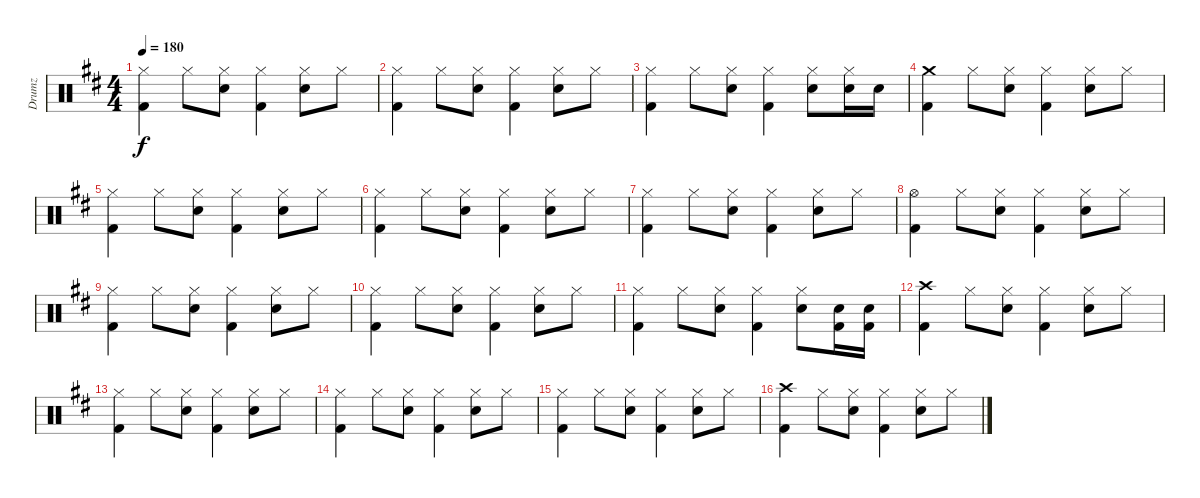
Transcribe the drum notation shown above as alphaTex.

\track ("Drumz" "Drumz") {instrument percussion}
\staff {score}
\articulation defaults
\ts (4 4)
\tempo 180
\clef neutral
\ks d
("Hi-Hat (closed)" "Kick (hit) 2").4{dy f} "Hi-Hat (closed)".8 ("Hi-Hat (closed)" "Snare (hit) 2").8 ("Hi-Hat (closed)" "Kick (hit) 2").4 ("Hi-Hat (closed)" "Snare (hit) 2").8 "Hi-Hat (closed)".8 |
("Hi-Hat (closed)" "Kick (hit) 2").4 "Hi-Hat (closed)".8 ("Hi-Hat (closed)" "Snare (hit) 2").8 ("Hi-Hat (closed)" "Kick (hit) 2").4 ("Hi-Hat (closed)" "Snare (hit) 2").8 "Hi-Hat (closed)".8 |
("Hi-Hat (closed)" "Kick (hit) 2").4 "Hi-Hat (closed)".8 ("Hi-Hat (closed)" "Snare (hit) 2").8 ("Hi-Hat (closed)" "Kick (hit) 2").4 ("Hi-Hat (closed)" "Snare (hit) 2").8 ("Hi-Hat (closed)" "Snare (hit) 2").16 "Snare (hit) 2".16 |
("Crash medium (hit)" "Kick (hit) 2").4 "Hi-Hat (closed)".8 ("Hi-Hat (closed)" "Snare (hit) 2").8 ("Hi-Hat (closed)" "Kick (hit) 2").4 ("Hi-Hat (closed)" "Snare (hit) 2").8 "Hi-Hat (closed)".8 |
("Hi-Hat (closed)" "Kick (hit) 2").4 "Hi-Hat (closed)".8 ("Hi-Hat (closed)" "Snare (hit) 2").8 ("Hi-Hat (closed)" "Kick (hit) 2").4 ("Hi-Hat (closed)" "Snare (hit) 2").8 "Hi-Hat (closed)".8 |
("Hi-Hat (closed)" "Kick (hit) 2").4 "Hi-Hat (closed)".8 ("Hi-Hat (closed)" "Snare (hit) 2").8 ("Hi-Hat (closed)" "Kick (hit) 2").4 ("Hi-Hat (closed)" "Snare (hit) 2").8 "Hi-Hat (closed)".8 |
("Hi-Hat (closed)" "Kick (hit) 2").4 "Hi-Hat (closed)".8 ("Hi-Hat (closed)" "Snare (hit) 2").8 ("Hi-Hat (closed)" "Kick (hit) 2").4 ("Hi-Hat (closed)" "Snare (hit) 2").8 "Hi-Hat (closed)".8 |
("Hi-Hat (open)" "Kick (hit) 2").4 "Hi-Hat (closed)".8 ("Hi-Hat (closed)" "Snare (hit) 2").8 ("Hi-Hat (closed)" "Kick (hit) 2").4 ("Hi-Hat (closed)" "Snare (hit) 2").8 "Hi-Hat (closed)".8 |
("Hi-Hat (closed)" "Kick (hit) 2").4 "Hi-Hat (closed)".8 ("Hi-Hat (closed)" "Snare (hit) 2").8 ("Hi-Hat (closed)" "Kick (hit) 2").4 ("Hi-Hat (closed)" "Snare (hit) 2").8 "Hi-Hat (closed)".8 |
("Hi-Hat (closed)" "Kick (hit) 2").4 "Hi-Hat (closed)".8 ("Hi-Hat (closed)" "Snare (hit) 2").8 ("Hi-Hat (closed)" "Kick (hit) 2").4 ("Hi-Hat (closed)" "Snare (hit) 2").8 "Hi-Hat (closed)".8 |
("Hi-Hat (closed)" "Kick (hit) 2").4 "Hi-Hat (closed)".8 ("Hi-Hat (closed)" "Snare (hit) 2").8 ("Hi-Hat (closed)" "Kick (hit) 2").4 ("Hi-Hat (closed)" "Snare (hit) 2").8 ("Kick (hit) 2" "Snare (hit) 2").16 ("Kick (hit) 2" "Snare (hit) 2").16 |
("Crash high (hit)" "Kick (hit) 2").4 "Hi-Hat (closed)".8 ("Hi-Hat (closed)" "Snare (hit) 2").8 ("Hi-Hat (closed)" "Kick (hit) 2").4 ("Hi-Hat (closed)" "Snare (hit) 2").8 "Hi-Hat (closed)".8 |
("Hi-Hat (closed)" "Kick (hit) 2").4 "Hi-Hat (closed)".8 ("Hi-Hat (closed)" "Snare (hit) 2").8 ("Hi-Hat (closed)" "Kick (hit) 2").4 ("Hi-Hat (closed)" "Snare (hit) 2").8 "Hi-Hat (closed)".8 |
("Hi-Hat (closed)" "Kick (hit) 2").4 "Hi-Hat (closed)".8 ("Hi-Hat (closed)" "Snare (hit) 2").8 ("Hi-Hat (closed)" "Kick (hit) 2").4 ("Hi-Hat (closed)" "Snare (hit) 2").8 "Hi-Hat (closed)".8 |
("Hi-Hat (closed)" "Kick (hit) 2").4 "Hi-Hat (closed)".8 ("Hi-Hat (closed)" "Snare (hit) 2").8 ("Hi-Hat (closed)" "Kick (hit) 2").4 ("Hi-Hat (closed)" "Snare (hit) 2").8 "Hi-Hat (closed)".8 |
("Crash high (hit)" "Kick (hit) 2").4 "Hi-Hat (closed)".8 ("Hi-Hat (closed)" "Snare (hit) 2").8 ("Hi-Hat (closed)" "Kick (hit) 2").4 ("Hi-Hat (closed)" "Snare (hit) 2").8 "Hi-Hat (closed)".8
